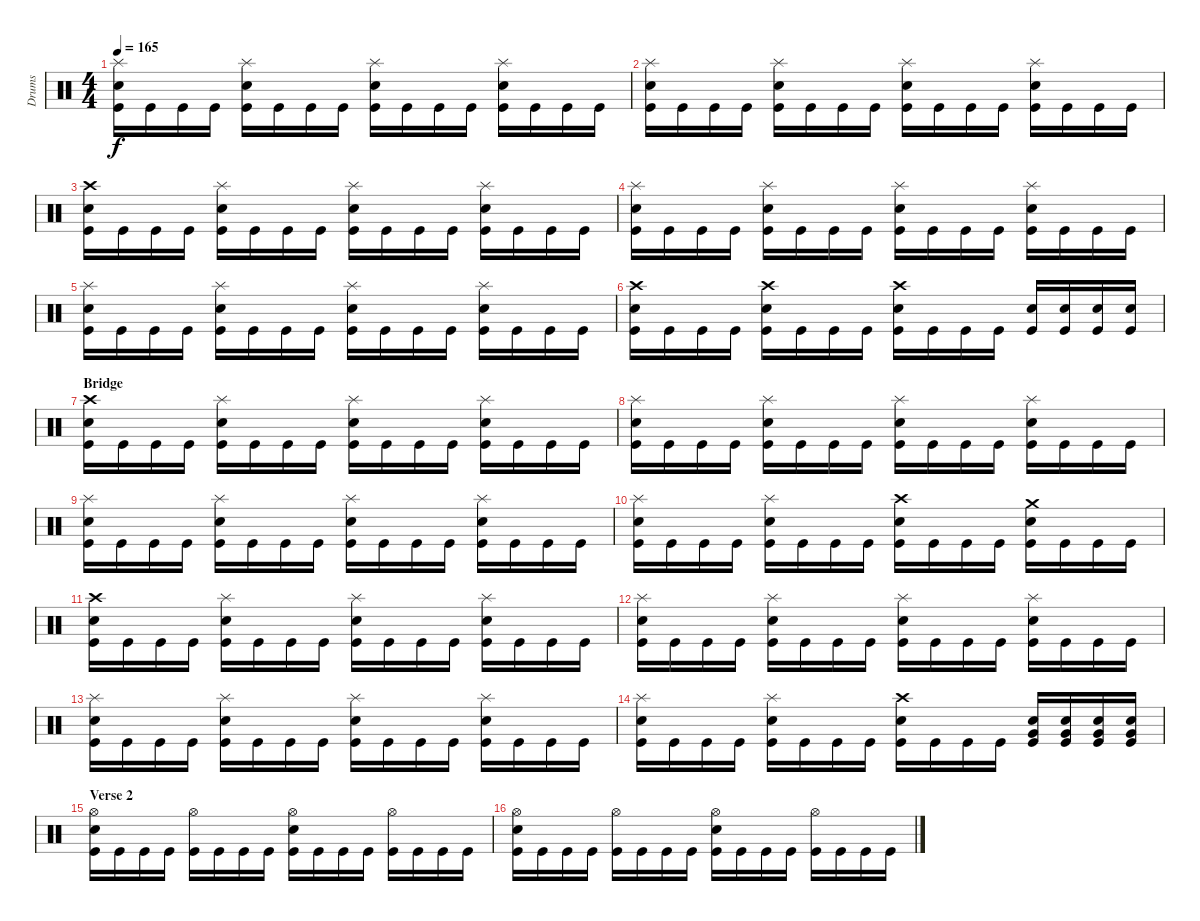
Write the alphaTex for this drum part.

\track ("Drums" "Drums") {instrument percussion}
\staff {score}
\articulation defaults
\ts (4 4)
\tempo 165
\clef neutral
\ks c
("Splash (hit)" "Electric Snare (hit)" "Kick (hit)").16{dy f} "Kick (hit)".16 "Kick (hit)".16 "Kick (hit)".16 ("Splash (hit)" "Electric Snare (hit)" "Kick (hit)").16 "Kick (hit)".16 "Kick (hit)".16 "Kick (hit)".16 ("Splash (hit)" "Electric Snare (hit)" "Kick (hit)").16 "Kick (hit)".16 "Kick (hit)".16 "Kick (hit)".16 ("Splash (hit)" "Electric Snare (hit)" "Kick (hit)").16 "Kick (hit)".16 "Kick (hit)".16 "Kick (hit)".16 |
("Splash (hit)" "Electric Snare (hit)" "Kick (hit)").16 "Kick (hit)".16 "Kick (hit)".16 "Kick (hit)".16 ("Splash (hit)" "Electric Snare (hit)" "Kick (hit)").16 "Kick (hit)".16 "Kick (hit)".16 "Kick (hit)".16 ("Splash (hit)" "Electric Snare (hit)" "Kick (hit)").16 "Kick (hit)".16 "Kick (hit)".16 "Kick (hit)".16 ("Splash (hit)" "Electric Snare (hit)" "Kick (hit)").16 "Kick (hit)".16 "Kick (hit)".16 "Kick (hit)".16 |
("Crash high (hit)" "Electric Snare (hit)" "Kick (hit)").16 "Kick (hit)".16 "Kick (hit)".16 "Kick (hit)".16 ("Splash (hit)" "Electric Snare (hit)" "Kick (hit)").16 "Kick (hit)".16 "Kick (hit)".16 "Kick (hit)".16 ("Splash (hit)" "Electric Snare (hit)" "Kick (hit)").16 "Kick (hit)".16 "Kick (hit)".16 "Kick (hit)".16 ("Splash (hit)" "Electric Snare (hit)" "Kick (hit)").16 "Kick (hit)".16 "Kick (hit)".16 "Kick (hit)".16 |
("Splash (hit)" "Electric Snare (hit)" "Kick (hit)").16 "Kick (hit)".16 "Kick (hit)".16 "Kick (hit)".16 ("Splash (hit)" "Electric Snare (hit)" "Kick (hit)").16 "Kick (hit)".16 "Kick (hit)".16 "Kick (hit)".16 ("Splash (hit)" "Electric Snare (hit)" "Kick (hit)").16 "Kick (hit)".16 "Kick (hit)".16 "Kick (hit)".16 ("Splash (hit)" "Electric Snare (hit)" "Kick (hit)").16 "Kick (hit)".16 "Kick (hit)".16 "Kick (hit)".16 |
("Splash (hit)" "Electric Snare (hit)" "Kick (hit)").16 "Kick (hit)".16 "Kick (hit)".16 "Kick (hit)".16 ("Splash (hit)" "Electric Snare (hit)" "Kick (hit)").16 "Kick (hit)".16 "Kick (hit)".16 "Kick (hit)".16 ("Splash (hit)" "Electric Snare (hit)" "Kick (hit)").16 "Kick (hit)".16 "Kick (hit)".16 "Kick (hit)".16 ("Splash (hit)" "Electric Snare (hit)" "Kick (hit)").16 "Kick (hit)".16 "Kick (hit)".16 "Kick (hit)".16 |
("Crash high (hit)" "Electric Snare (hit)" "Kick (hit)").16 "Kick (hit)".16 "Kick (hit)".16 "Kick (hit)".16 ("Crash high (hit)" "Electric Snare (hit)" "Kick (hit)").16 "Kick (hit)".16 "Kick (hit)".16 "Kick (hit)".16 ("Crash high (hit)" "Electric Snare (hit)" "Kick (hit)").16 "Kick (hit)".16 "Kick (hit)".16 "Kick (hit)".16 ("Electric Snare (hit)" "Kick (hit)").16 ("Electric Snare (hit)" "Kick (hit)").16 ("Electric Snare (hit)" "Kick (hit)").16 ("Electric Snare (hit)" "Kick (hit)").16 |
\section ("" "Bridge")
("Crash high (hit)" "Electric Snare (hit)" "Kick (hit)").16 "Kick (hit)".16 "Kick (hit)".16 "Kick (hit)".16 ("Splash (hit)" "Electric Snare (hit)" "Kick (hit)").16 "Kick (hit)".16 "Kick (hit)".16 "Kick (hit)".16 ("Splash (hit)" "Electric Snare (hit)" "Kick (hit)").16 "Kick (hit)".16 "Kick (hit)".16 "Kick (hit)".16 ("Splash (hit)" "Electric Snare (hit)" "Kick (hit)").16 "Kick (hit)".16 "Kick (hit)".16 "Kick (hit)".16 |
("Splash (hit)" "Electric Snare (hit)" "Kick (hit)").16 "Kick (hit)".16 "Kick (hit)".16 "Kick (hit)".16 ("Splash (hit)" "Electric Snare (hit)" "Kick (hit)").16 "Kick (hit)".16 "Kick (hit)".16 "Kick (hit)".16 ("Splash (hit)" "Electric Snare (hit)" "Kick (hit)").16 "Kick (hit)".16 "Kick (hit)".16 "Kick (hit)".16 ("Splash (hit)" "Electric Snare (hit)" "Kick (hit)").16 "Kick (hit)".16 "Kick (hit)".16 "Kick (hit)".16 |
("Splash (hit)" "Electric Snare (hit)" "Kick (hit)").16 "Kick (hit)".16 "Kick (hit)".16 "Kick (hit)".16 ("Splash (hit)" "Electric Snare (hit)" "Kick (hit)").16 "Kick (hit)".16 "Kick (hit)".16 "Kick (hit)".16 ("Splash (hit)" "Electric Snare (hit)" "Kick (hit)").16 "Kick (hit)".16 "Kick (hit)".16 "Kick (hit)".16 ("Splash (hit)" "Electric Snare (hit)" "Kick (hit)").16 "Kick (hit)".16 "Kick (hit)".16 "Kick (hit)".16 |
("Splash (hit)" "Electric Snare (hit)" "Kick (hit)").16 "Kick (hit)".16 "Kick (hit)".16 "Kick (hit)".16 ("Splash (hit)" "Electric Snare (hit)" "Kick (hit)").16 "Kick (hit)".16 "Kick (hit)".16 "Kick (hit)".16 ("Crash high (hit)" "Electric Snare (hit)" "Kick (hit)").16 "Kick (hit)".16 "Kick (hit)".16 "Kick (hit)".16 ("Crash medium (hit)" "Electric Snare (hit)" "Kick (hit)").16 "Kick (hit)".16 "Kick (hit)".16 "Kick (hit)".16 |
("Crash high (hit)" "Electric Snare (hit)" "Kick (hit)").16 "Kick (hit)".16 "Kick (hit)".16 "Kick (hit)".16 ("Splash (hit)" "Electric Snare (hit)" "Kick (hit)").16 "Kick (hit)".16 "Kick (hit)".16 "Kick (hit)".16 ("Splash (hit)" "Electric Snare (hit)" "Kick (hit)").16 "Kick (hit)".16 "Kick (hit)".16 "Kick (hit)".16 ("Splash (hit)" "Electric Snare (hit)" "Kick (hit)").16 "Kick (hit)".16 "Kick (hit)".16 "Kick (hit)".16 |
("Splash (hit)" "Electric Snare (hit)" "Kick (hit)").16 "Kick (hit)".16 "Kick (hit)".16 "Kick (hit)".16 ("Splash (hit)" "Electric Snare (hit)" "Kick (hit)").16 "Kick (hit)".16 "Kick (hit)".16 "Kick (hit)".16 ("Splash (hit)" "Electric Snare (hit)" "Kick (hit)").16 "Kick (hit)".16 "Kick (hit)".16 "Kick (hit)".16 ("Splash (hit)" "Electric Snare (hit)" "Kick (hit)").16 "Kick (hit)".16 "Kick (hit)".16 "Kick (hit)".16 |
("Splash (hit)" "Electric Snare (hit)" "Kick (hit)").16 "Kick (hit)".16 "Kick (hit)".16 "Kick (hit)".16 ("Splash (hit)" "Electric Snare (hit)" "Kick (hit)").16 "Kick (hit)".16 "Kick (hit)".16 "Kick (hit)".16 ("Splash (hit)" "Electric Snare (hit)" "Kick (hit)").16 "Kick (hit)".16 "Kick (hit)".16 "Kick (hit)".16 ("Splash (hit)" "Electric Snare (hit)" "Kick (hit)").16 "Kick (hit)".16 "Kick (hit)".16 "Kick (hit)".16 |
("Splash (hit)" "Electric Snare (hit)" "Kick (hit)").16 "Kick (hit)".16 "Kick (hit)".16 "Kick (hit)".16 ("Splash (hit)" "Electric Snare (hit)" "Kick (hit)").16 "Kick (hit)".16 "Kick (hit)".16 "Kick (hit)".16 ("Crash high (hit)" "Electric Snare (hit)" "Kick (hit)").16 "Kick (hit)".16 "Kick (hit)".16 "Kick (hit)".16 ("Very Low Tom (hit)" "Electric Snare (hit)" "Kick (hit)").16 ("Very Low Tom (hit)" "Electric Snare (hit)" "Kick (hit)").16 ("Very Low Tom (hit)" "Electric Snare (hit)" "Kick (hit)").16 ("Very Low Tom (hit)" "Electric Snare (hit)" "Kick (hit)").16 |
\section ("" "Verse 2")
("Hi-Hat (open)" "Electric Snare (hit)" "Kick (hit)").16 "Kick (hit)".16 "Kick (hit)".16 "Kick (hit)".16 ("Hi-Hat (open)" "Kick (hit)").16 "Kick (hit)".16 "Kick (hit)".16 "Kick (hit)".16 ("Hi-Hat (open)" "Electric Snare (hit)" "Kick (hit)").16 "Kick (hit)".16 "Kick (hit)".16 "Kick (hit)".16 ("Hi-Hat (open)" "Kick (hit)").16 "Kick (hit)".16 "Kick (hit)".16 "Kick (hit)".16 |
("Hi-Hat (open)" "Electric Snare (hit)" "Kick (hit)").16 "Kick (hit)".16 "Kick (hit)".16 "Kick (hit)".16 ("Hi-Hat (open)" "Kick (hit)").16 "Kick (hit)".16 "Kick (hit)".16 "Kick (hit)".16 ("Hi-Hat (open)" "Electric Snare (hit)" "Kick (hit)").16 "Kick (hit)".16 "Kick (hit)".16 "Kick (hit)".16 ("Hi-Hat (open)" "Kick (hit)").16 "Kick (hit)".16 "Kick (hit)".16 "Kick (hit)".16
